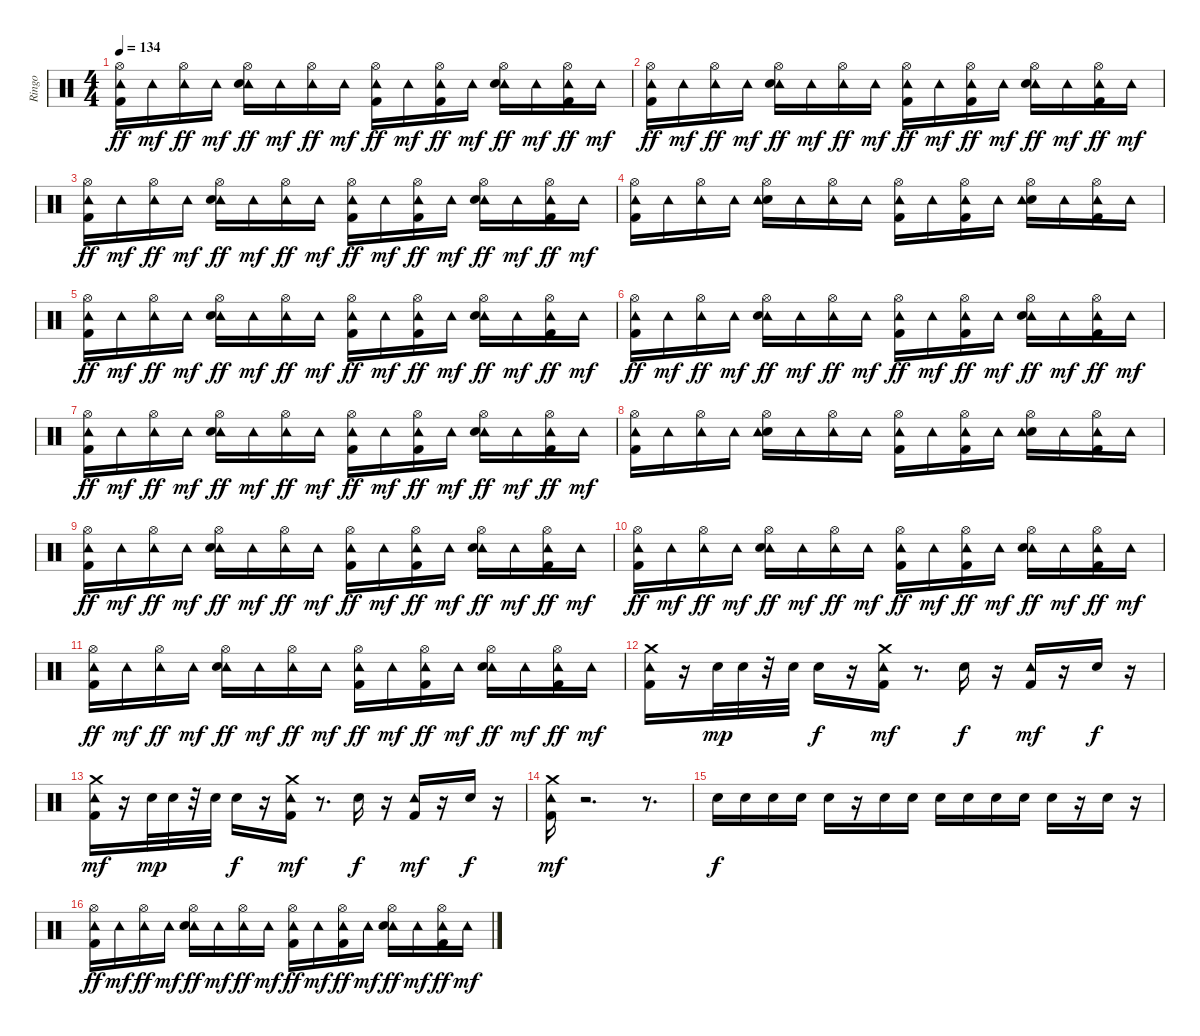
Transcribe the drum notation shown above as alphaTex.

\track ("Ringo" "Ringo") {instrument percussion}
\staff {score}
\articulation defaults
\ts (4 4)
\tempo 134
\clef neutral
\ks c
("Tambourine (hit)" "Kick (hit) 2" "Hi-Hat (open)").16{dy ff} "Tambourine (hit)".16{dy mf} ("Tambourine (hit)" "Hi-Hat (open)").16{dy ff} "Tambourine (hit)".16{dy mf} ("Tambourine (hit)" "Snare (hit) 2" "Hi-Hat (open)").16{dy ff} "Tambourine (hit)".16{dy mf} ("Tambourine (hit)" "Hi-Hat (open)").16{dy ff} "Tambourine (hit)".16{dy mf} ("Tambourine (hit)" "Kick (hit) 2" "Hi-Hat (open)").16{dy ff} "Tambourine (hit)".16{dy mf} ("Tambourine (hit)" "Kick (hit) 2" "Hi-Hat (open)").16{dy ff} "Tambourine (hit)".16{dy mf} ("Tambourine (hit)" "Snare (hit) 2" "Hi-Hat (open)").16{dy ff} "Tambourine (hit)".16{dy mf} ("Tambourine (hit)" "Kick (hit) 2" "Hi-Hat (open)").16{dy ff} "Tambourine (hit)".16{dy mf} |
("Tambourine (hit)" "Kick (hit) 2" "Hi-Hat (open)").16{dy ff} "Tambourine (hit)".16{dy mf} ("Tambourine (hit)" "Hi-Hat (open)").16{dy ff} "Tambourine (hit)".16{dy mf} ("Tambourine (hit)" "Snare (hit) 2" "Hi-Hat (open)").16{dy ff} "Tambourine (hit)".16{dy mf} ("Tambourine (hit)" "Hi-Hat (open)").16{dy ff} "Tambourine (hit)".16{dy mf} ("Tambourine (hit)" "Kick (hit) 2" "Hi-Hat (open)").16{dy ff} "Tambourine (hit)".16{dy mf} ("Tambourine (hit)" "Kick (hit) 2" "Hi-Hat (open)").16{dy ff} "Tambourine (hit)".16{dy mf} ("Tambourine (hit)" "Snare (hit) 2" "Hi-Hat (open)").16{dy ff} "Tambourine (hit)".16{dy mf} ("Tambourine (hit)" "Kick (hit) 2" "Hi-Hat (open)").16{dy ff} "Tambourine (hit)".16{dy mf} |
("Tambourine (hit)" "Kick (hit) 2" "Hi-Hat (open)").16{dy ff} "Tambourine (hit)".16{dy mf} ("Tambourine (hit)" "Hi-Hat (open)").16{dy ff} "Tambourine (hit)".16{dy mf} ("Tambourine (hit)" "Snare (hit) 2" "Hi-Hat (open)").16{dy ff} "Tambourine (hit)".16{dy mf} ("Tambourine (hit)" "Hi-Hat (open)").16{dy ff} "Tambourine (hit)".16{dy mf} ("Tambourine (hit)" "Kick (hit) 2" "Hi-Hat (open)").16{dy ff} "Tambourine (hit)".16{dy mf} ("Tambourine (hit)" "Kick (hit) 2" "Hi-Hat (open)").16{dy ff} "Tambourine (hit)".16{dy mf} ("Tambourine (hit)" "Snare (hit) 2" "Hi-Hat (open)").16{dy ff} "Tambourine (hit)".16{dy mf} ("Tambourine (hit)" "Kick (hit) 2" "Hi-Hat (open)").16{dy ff} "Tambourine (hit)".16{dy mf} |
("Hi-Hat (open)" "Kick (hit) 2" "Tambourine (hit)").16 "Tambourine (hit)".16 ("Hi-Hat (open)" "Tambourine (hit)").16 "Tambourine (hit)".16 ("Hi-Hat (open)" "Snare (hit) 2" "Tambourine (hit)").16 "Tambourine (hit)".16 ("Hi-Hat (open)" "Tambourine (hit)").16 "Tambourine (hit)".16 ("Hi-Hat (open)" "Kick (hit) 2" "Tambourine (hit)").16 "Tambourine (hit)".16 ("Hi-Hat (open)" "Kick (hit) 2" "Tambourine (hit)").16 "Tambourine (hit)".16 ("Hi-Hat (open)" "Snare (hit) 2" "Tambourine (hit)").16 "Tambourine (hit)".16 ("Hi-Hat (open)" "Kick (hit) 2" "Tambourine (hit)").16 "Tambourine (hit)".16 |
("Tambourine (hit)" "Kick (hit) 2" "Hi-Hat (open)").16{dy ff} "Tambourine (hit)".16{dy mf} ("Tambourine (hit)" "Hi-Hat (open)").16{dy ff} "Tambourine (hit)".16{dy mf} ("Tambourine (hit)" "Snare (hit) 2" "Hi-Hat (open)").16{dy ff} "Tambourine (hit)".16{dy mf} ("Tambourine (hit)" "Hi-Hat (open)").16{dy ff} "Tambourine (hit)".16{dy mf} ("Tambourine (hit)" "Kick (hit) 2" "Hi-Hat (open)").16{dy ff} "Tambourine (hit)".16{dy mf} ("Tambourine (hit)" "Kick (hit) 2" "Hi-Hat (open)").16{dy ff} "Tambourine (hit)".16{dy mf} ("Tambourine (hit)" "Snare (hit) 2" "Hi-Hat (open)").16{dy ff} "Tambourine (hit)".16{dy mf} ("Tambourine (hit)" "Kick (hit) 2" "Hi-Hat (open)").16{dy ff} "Tambourine (hit)".16{dy mf} |
("Tambourine (hit)" "Kick (hit) 2" "Hi-Hat (open)").16{dy ff} "Tambourine (hit)".16{dy mf} ("Tambourine (hit)" "Hi-Hat (open)").16{dy ff} "Tambourine (hit)".16{dy mf} ("Tambourine (hit)" "Snare (hit) 2" "Hi-Hat (open)").16{dy ff} "Tambourine (hit)".16{dy mf} ("Tambourine (hit)" "Hi-Hat (open)").16{dy ff} "Tambourine (hit)".16{dy mf} ("Tambourine (hit)" "Kick (hit) 2" "Hi-Hat (open)").16{dy ff} "Tambourine (hit)".16{dy mf} ("Tambourine (hit)" "Kick (hit) 2" "Hi-Hat (open)").16{dy ff} "Tambourine (hit)".16{dy mf} ("Tambourine (hit)" "Snare (hit) 2" "Hi-Hat (open)").16{dy ff} "Tambourine (hit)".16{dy mf} ("Tambourine (hit)" "Kick (hit) 2" "Hi-Hat (open)").16{dy ff} "Tambourine (hit)".16{dy mf} |
("Tambourine (hit)" "Kick (hit) 2" "Hi-Hat (open)").16{dy ff} "Tambourine (hit)".16{dy mf} ("Tambourine (hit)" "Hi-Hat (open)").16{dy ff} "Tambourine (hit)".16{dy mf} ("Tambourine (hit)" "Snare (hit) 2" "Hi-Hat (open)").16{dy ff} "Tambourine (hit)".16{dy mf} ("Tambourine (hit)" "Hi-Hat (open)").16{dy ff} "Tambourine (hit)".16{dy mf} ("Tambourine (hit)" "Kick (hit) 2" "Hi-Hat (open)").16{dy ff} "Tambourine (hit)".16{dy mf} ("Tambourine (hit)" "Kick (hit) 2" "Hi-Hat (open)").16{dy ff} "Tambourine (hit)".16{dy mf} ("Tambourine (hit)" "Snare (hit) 2" "Hi-Hat (open)").16{dy ff} "Tambourine (hit)".16{dy mf} ("Tambourine (hit)" "Kick (hit) 2" "Hi-Hat (open)").16{dy ff} "Tambourine (hit)".16{dy mf} |
("Hi-Hat (open)" "Kick (hit) 2" "Tambourine (hit)").16 "Tambourine (hit)".16 ("Hi-Hat (open)" "Tambourine (hit)").16 "Tambourine (hit)".16 ("Hi-Hat (open)" "Snare (hit) 2" "Tambourine (hit)").16 "Tambourine (hit)".16 ("Hi-Hat (open)" "Tambourine (hit)").16 "Tambourine (hit)".16 ("Hi-Hat (open)" "Kick (hit) 2" "Tambourine (hit)").16 "Tambourine (hit)".16 ("Hi-Hat (open)" "Kick (hit) 2" "Tambourine (hit)").16 "Tambourine (hit)".16 ("Hi-Hat (open)" "Snare (hit) 2" "Tambourine (hit)").16 "Tambourine (hit)".16 ("Hi-Hat (open)" "Kick (hit) 2" "Tambourine (hit)").16 "Tambourine (hit)".16 |
("Tambourine (hit)" "Kick (hit) 2" "Hi-Hat (open)").16{dy ff} "Tambourine (hit)".16{dy mf} ("Tambourine (hit)" "Hi-Hat (open)").16{dy ff} "Tambourine (hit)".16{dy mf} ("Tambourine (hit)" "Snare (hit) 2" "Hi-Hat (open)").16{dy ff} "Tambourine (hit)".16{dy mf} ("Tambourine (hit)" "Hi-Hat (open)").16{dy ff} "Tambourine (hit)".16{dy mf} ("Tambourine (hit)" "Kick (hit) 2" "Hi-Hat (open)").16{dy ff} "Tambourine (hit)".16{dy mf} ("Tambourine (hit)" "Kick (hit) 2" "Hi-Hat (open)").16{dy ff} "Tambourine (hit)".16{dy mf} ("Tambourine (hit)" "Snare (hit) 2" "Hi-Hat (open)").16{dy ff} "Tambourine (hit)".16{dy mf} ("Tambourine (hit)" "Kick (hit) 2" "Hi-Hat (open)").16{dy ff} "Tambourine (hit)".16{dy mf} |
("Tambourine (hit)" "Kick (hit) 2" "Hi-Hat (open)").16{dy ff} "Tambourine (hit)".16{dy mf} ("Tambourine (hit)" "Hi-Hat (open)").16{dy ff} "Tambourine (hit)".16{dy mf} ("Tambourine (hit)" "Snare (hit) 2" "Hi-Hat (open)").16{dy ff} "Tambourine (hit)".16{dy mf} ("Tambourine (hit)" "Hi-Hat (open)").16{dy ff} "Tambourine (hit)".16{dy mf} ("Tambourine (hit)" "Kick (hit) 2" "Hi-Hat (open)").16{dy ff} "Tambourine (hit)".16{dy mf} ("Tambourine (hit)" "Kick (hit) 2" "Hi-Hat (open)").16{dy ff} "Tambourine (hit)".16{dy mf} ("Tambourine (hit)" "Snare (hit) 2" "Hi-Hat (open)").16{dy ff} "Tambourine (hit)".16{dy mf} ("Tambourine (hit)" "Kick (hit) 2" "Hi-Hat (open)").16{dy ff} "Tambourine (hit)".16{dy mf} |
("Tambourine (hit)" "Kick (hit) 2" "Hi-Hat (open)").16{dy ff} "Tambourine (hit)".16{dy mf} ("Tambourine (hit)" "Hi-Hat (open)").16{dy ff} "Tambourine (hit)".16{dy mf} ("Tambourine (hit)" "Snare (hit) 2" "Hi-Hat (open)").16{dy ff} "Tambourine (hit)".16{dy mf} ("Tambourine (hit)" "Hi-Hat (open)").16{dy ff} "Tambourine (hit)".16{dy mf} ("Tambourine (hit)" "Kick (hit) 2" "Hi-Hat (open)").16{dy ff} "Tambourine (hit)".16{dy mf} ("Tambourine (hit)" "Kick (hit) 2" "Hi-Hat (open)").16{dy ff} "Tambourine (hit)".16{dy mf} ("Tambourine (hit)" "Snare (hit) 2" "Hi-Hat (open)").16{dy ff} "Tambourine (hit)".16{dy mf} ("Tambourine (hit)" "Kick (hit) 2" "Hi-Hat (open)").16{dy ff} "Tambourine (hit)".16{dy mf} |
("Kick (hit) 2" "Crash medium (hit)" "Tambourine (hit)").16 r.16 "Snare (hit) 2".32{dy mp} "Snare (hit) 2".32 r.32 "Snare (hit) 2".32 "Snare (hit) 2".16{dy f} r.16 ("Kick (hit) 2" "Crash medium (hit)" "Tambourine (hit)").16{dy mf} r.8{d} "Snare (hit) 2".16{dy f} r.16 ("Kick (hit) 2" "Tambourine (hit)").16{dy mf} r.16 "Snare (hit) 2".16{dy f} r.16 |
("Crash medium (hit)" "Kick (hit) 2" "Tambourine (hit)").16{dy mf} r.16 "Snare (hit) 2".32{dy mp} "Snare (hit) 2".32 r.32 "Snare (hit) 2".32 "Snare (hit) 2".16{dy f} r.16 ("Crash medium (hit)" "Kick (hit) 2" "Tambourine (hit)").16{dy mf} r.8{d} "Snare (hit) 2".16{dy f} r.16 ("Kick (hit) 2" "Tambourine (hit)").16{dy mf} r.16 "Snare (hit) 2".16{dy f} r.16 |
("Kick (hit) 2" "Crash medium (hit)" "Tambourine (hit)").16{dy mf} r.2{d} r.8{d} |
"Snare (hit) 2".16{dy f} "Snare (hit) 2".16 "Snare (hit) 2".16 "Snare (hit) 2".16 "Snare (hit) 2".16 r.16 "Snare (hit) 2".16 "Snare (hit) 2".16 "Snare (hit) 2".16 "Snare (hit) 2".16 "Snare (hit) 2".16 "Snare (hit) 2".16 "Snare (hit) 2".16 r.16 "Snare (hit) 2".16 r.16 |
("Tambourine (hit)" "Kick (hit) 2" "Hi-Hat (open)").16{dy ff} "Tambourine (hit)".16{dy mf} ("Tambourine (hit)" "Hi-Hat (open)").16{dy ff} "Tambourine (hit)".16{dy mf} ("Tambourine (hit)" "Snare (hit) 2" "Hi-Hat (open)").16{dy ff} "Tambourine (hit)".16{dy mf} ("Tambourine (hit)" "Hi-Hat (open)").16{dy ff} "Tambourine (hit)".16{dy mf} ("Tambourine (hit)" "Kick (hit) 2" "Hi-Hat (open)").16{dy ff} "Tambourine (hit)".16{dy mf} ("Tambourine (hit)" "Kick (hit) 2" "Hi-Hat (open)").16{dy ff} "Tambourine (hit)".16{dy mf} ("Tambourine (hit)" "Snare (hit) 2" "Hi-Hat (open)").16{dy ff} "Tambourine (hit)".16{dy mf} ("Tambourine (hit)" "Kick (hit) 2" "Hi-Hat (open)").16{dy ff} "Tambourine (hit)".16{dy mf}
